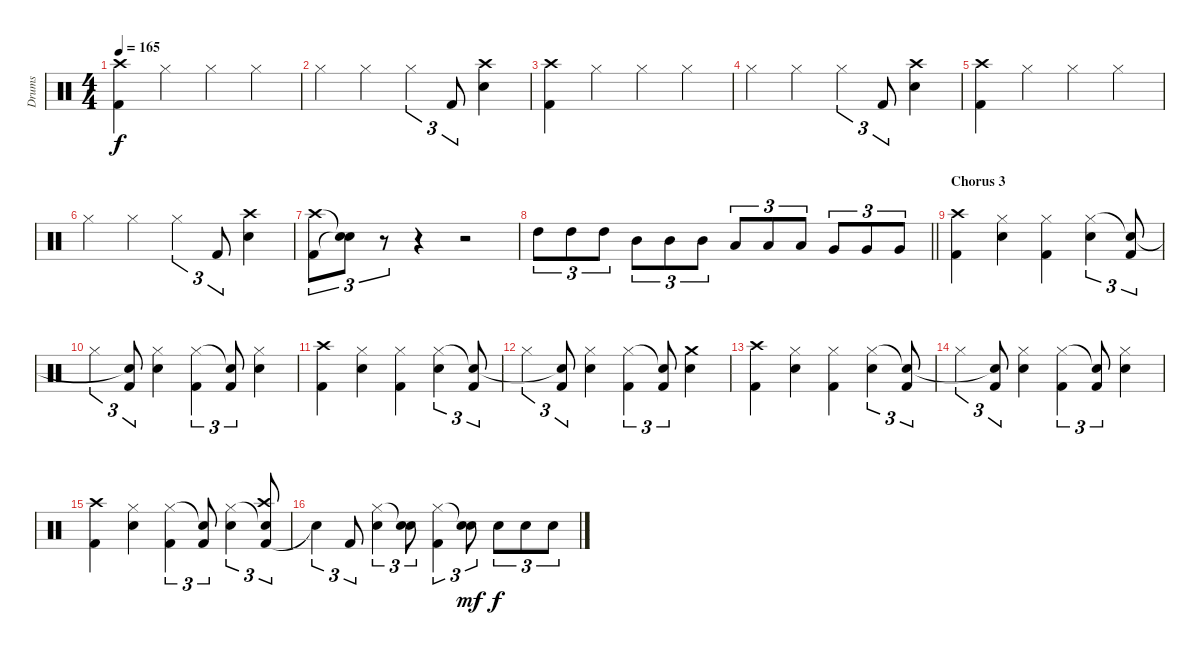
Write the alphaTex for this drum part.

\track ("Drums" "Drums") {instrument percussion}
\staff {score}
\articulation defaults
\ts (4 4)
\tempo 165
\clef neutral
\ks c
("Kick (hit) 2" "Crash high (hit)").4{dy f} "Hi-Hat (closed)".4 "Hi-Hat (closed)".4 "Hi-Hat (closed)".4 |
"Hi-Hat (closed)".4 "Hi-Hat (closed)".4 "Hi-Hat (closed)".4{tu (3 2)} "Kick (hit) 2".8{tu (3 2)} ("Snare (hit) 2" "Crash high (hit)").4 |
("Kick (hit) 2" "Crash high (hit)").4 "Hi-Hat (closed)".4 "Hi-Hat (closed)".4 "Hi-Hat (closed)".4 |
"Hi-Hat (closed)".4 "Hi-Hat (closed)".4 "Hi-Hat (closed)".4{tu (3 2)} "Kick (hit) 2".8{tu (3 2)} ("Snare (hit) 2" "Crash high (hit)").4 |
("Kick (hit) 2" "Crash high (hit)").4 "Hi-Hat (closed)".4 "Hi-Hat (closed)".4 "Hi-Hat (closed)".4 |
"Hi-Hat (closed)".4 "Hi-Hat (closed)".4 "Hi-Hat (closed)".4{tu (3 2)} "Kick (hit) 2".8{tu (3 2)} ("Snare (hit) 2" "Crash high (hit)").4 |
("Kick (hit) 2" "Crash high (hit)").8{tu (3 2)} ("Snare (hit)"{t} "Snare (hit)"{t}).8{tu (3 2)} r.8{tu (3 2)} r.4 r.2 |
\barLineRight lightlight "High Tom (hit)".8{tu (3 2)} "High Tom (hit)".8{tu (3 2)} "High Tom (hit)".8{tu (3 2)} "Mid Tom (hit)".8{tu (3 2)} "Mid Tom (hit)".8{tu (3 2)} "Mid Tom (hit)".8{tu (3 2)} "Low Tom (hit)".8{tu (3 2)} "Low Tom (hit)".8{tu (3 2)} "Low Tom (hit)".8{tu (3 2)} "Very Low Tom (hit)".8{tu (3 2)} "Very Low Tom (hit)".8{tu (3 2)} "Very Low Tom (hit)".8{tu (3 2)}
|
\section ("" "Chorus 3")
("Kick (hit) 2" "Crash high (hit)").4 ("Snare (hit) 2" "Hi-Hat (closed)").4 ("Kick (hit) 2" "Hi-Hat (closed)").4 ("Snare (hit) 2" "Hi-Hat (closed)").4{tu (3 2)} ("Kick (hit) 2" "Snare (hit)"{t}).8{tu (3 2)} |
"Hi-Hat (closed)".4{tu (3 2)} ("Kick (hit) 2" "Snare (hit)"{t}).8{tu (3 2)} ("Snare (hit) 2" "Hi-Hat (closed)").4 ("Kick (hit) 2" "Hi-Hat (closed)").4{tu (3 2)} ("Kick (hit) 2" "Snare (hit)"{t}).8{tu (3 2)} ("Snare (hit) 2" "Hi-Hat (closed)").4 |
("Kick (hit) 2" "Crash high (hit)").4 ("Snare (hit) 2" "Hi-Hat (closed)").4 ("Kick (hit) 2" "Hi-Hat (closed)").4 ("Snare (hit) 2" "Hi-Hat (closed)").4{tu (3 2)} ("Kick (hit) 2" "Snare (hit)"{t}).8{tu (3 2)} |
"Hi-Hat (closed)".4{tu (3 2)} ("Kick (hit) 2" "Snare (hit)"{t}).8{tu (3 2)} ("Snare (hit) 2" "Hi-Hat (closed)").4 ("Kick (hit) 2" "Hi-Hat (closed)").4{tu (3 2)} ("Kick (hit) 2" "Snare (hit)"{t}).8{tu (3 2)} ("Snare (hit) 2" "Crash medium (hit)").4 |
("Kick (hit) 2" "Crash high (hit)").4 ("Snare (hit) 2" "Hi-Hat (closed)").4 ("Kick (hit) 2" "Hi-Hat (closed)").4 ("Snare (hit) 2" "Hi-Hat (closed)").4{tu (3 2)} ("Kick (hit) 2" "Snare (hit)"{t}).8{tu (3 2)} |
"Hi-Hat (closed)".4{tu (3 2)} ("Kick (hit) 2" "Snare (hit)"{t}).8{tu (3 2)} ("Snare (hit) 2" "Hi-Hat (closed)").4 ("Kick (hit) 2" "Hi-Hat (closed)").4{tu (3 2)} ("Kick (hit) 2" "Snare (hit)"{t}).8{tu (3 2)} ("Snare (hit) 2" "Hi-Hat (closed)").4 |
("Kick (hit) 2" "Crash high (hit)").4 ("Snare (hit) 2" "Hi-Hat (closed)").4 ("Kick (hit) 2" "Hi-Hat (closed)").4{tu (3 2)} ("Kick (hit) 2" "Snare (hit)"{t}).8{tu (3 2)} ("Snare (hit) 2" "Hi-Hat (closed)").4{tu (3 2)} ("Kick (hit) 2" "Snare (hit)"{t} "Crash high (hit)").8{tu (3 2)} |
"Snare (hit)"{t}.4{tu (3 2)} "Kick (hit) 2".8{tu (3 2)} ("Snare (hit) 2" "Hi-Hat (closed)").4{tu (3 2)} ("Snare (hit) 2" "Snare (hit)"{t}).8{tu (3 2)} ("Kick (hit) 2" "Hi-Hat (closed)").4{tu (3 2)} ("Snare (hit) 2" "Snare (hit)"{t}).8{tu (3 2) dy mf} "Snare (hit) 2".8{tu (3 2) dy f} "Snare (hit) 2".8{tu (3 2)} "Snare (hit) 2".8{tu (3 2)}
